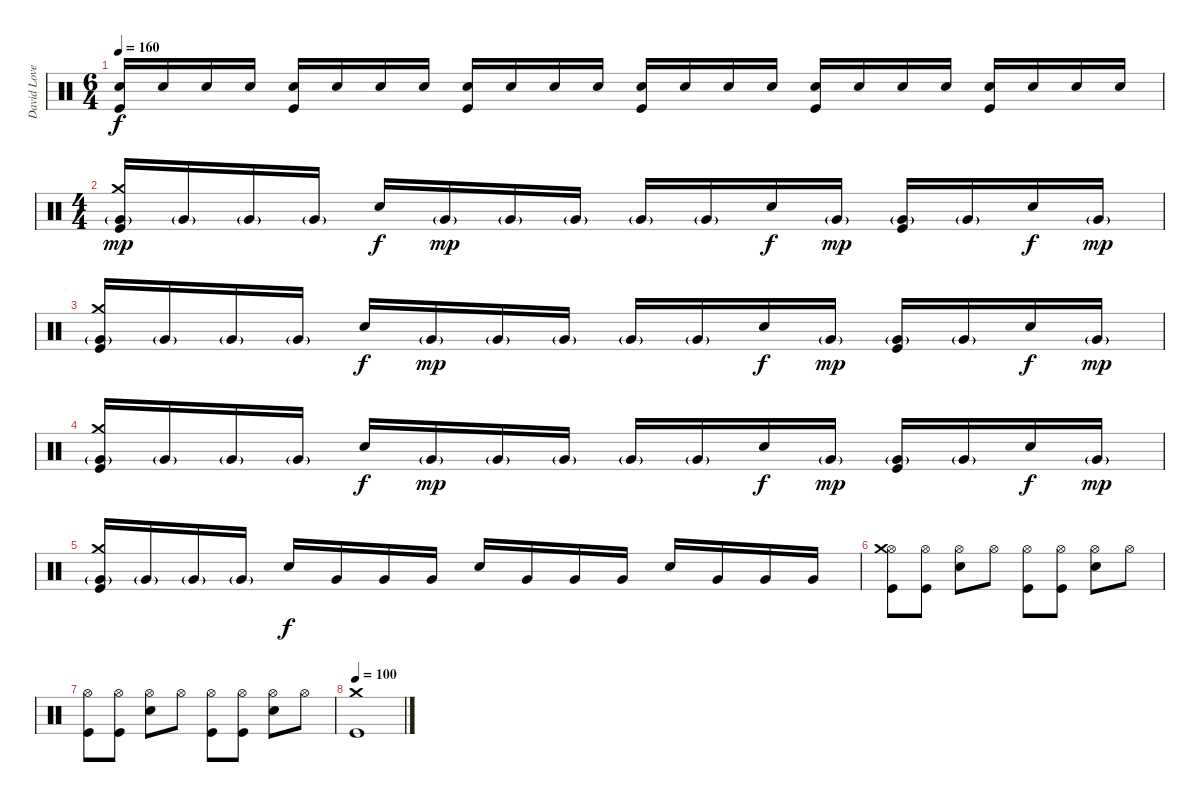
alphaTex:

\track ("David Lovering" "David Love") {instrument percussion}
\staff {score}
\articulation defaults
\ts (6 4)
\tempo 160
\clef neutral
\ks c
("Snare (hit) 2" "Kick (hit)").16{dy f} "Snare (hit) 2".16 "Snare (hit) 2".16 "Snare (hit) 2".16 ("Snare (hit) 2" "Kick (hit)").16 "Snare (hit) 2".16 "Snare (hit) 2".16 "Snare (hit) 2".16 ("Snare (hit) 2" "Kick (hit)").16 "Snare (hit) 2".16 "Snare (hit) 2".16 "Snare (hit) 2".16 ("Snare (hit) 2" "Kick (hit)").16 "Snare (hit) 2".16 "Snare (hit) 2".16 "Snare (hit) 2".16 ("Snare (hit) 2" "Kick (hit)").16 "Snare (hit) 2".16 "Snare (hit) 2".16 "Snare (hit) 2".16 ("Snare (hit) 2" "Kick (hit)").16 "Snare (hit) 2".16 "Snare (hit) 2".16 "Snare (hit) 2".16 |
\ts (4 4)
("Crash medium (hit)" "Very Low Tom (hit)"{g} "Kick (hit)").16{dy mp} "Very Low Tom (hit)"{g}.16 "Very Low Tom (hit)"{g}.16 "Very Low Tom (hit)"{g}.16 "Snare (hit) 2".16{dy f} "Very Low Tom (hit)"{g}.16{dy mp} "Very Low Tom (hit)"{g}.16 "Very Low Tom (hit)"{g}.16 "Very Low Tom (hit)"{g}.16 "Very Low Tom (hit)"{g}.16 "Snare (hit) 2".16{dy f} "Very Low Tom (hit)"{g}.16{dy mp} ("Very Low Tom (hit)"{g} "Kick (hit)").16 "Very Low Tom (hit)"{g}.16 "Snare (hit) 2".16{dy f} "Very Low Tom (hit)"{g}.16{dy mp} |
("Crash medium (hit)" "Very Low Tom (hit)"{g} "Kick (hit)").16 "Very Low Tom (hit)"{g}.16 "Very Low Tom (hit)"{g}.16 "Very Low Tom (hit)"{g}.16 "Snare (hit) 2".16{dy f} "Very Low Tom (hit)"{g}.16{dy mp} "Very Low Tom (hit)"{g}.16 "Very Low Tom (hit)"{g}.16 "Very Low Tom (hit)"{g}.16 "Very Low Tom (hit)"{g}.16 "Snare (hit) 2".16{dy f} "Very Low Tom (hit)"{g}.16{dy mp} ("Very Low Tom (hit)"{g} "Kick (hit)").16 "Very Low Tom (hit)"{g}.16 "Snare (hit) 2".16{dy f} "Very Low Tom (hit)"{g}.16{dy mp} |
("Crash medium (hit)" "Very Low Tom (hit)"{g} "Kick (hit)").16 "Very Low Tom (hit)"{g}.16 "Very Low Tom (hit)"{g}.16 "Very Low Tom (hit)"{g}.16 "Snare (hit) 2".16{dy f} "Very Low Tom (hit)"{g}.16{dy mp} "Very Low Tom (hit)"{g}.16 "Very Low Tom (hit)"{g}.16 "Very Low Tom (hit)"{g}.16 "Very Low Tom (hit)"{g}.16 "Snare (hit) 2".16{dy f} "Very Low Tom (hit)"{g}.16{dy mp} ("Very Low Tom (hit)"{g} "Kick (hit)").16 "Very Low Tom (hit)"{g}.16 "Snare (hit) 2".16{dy f} "Very Low Tom (hit)"{g}.16{dy mp} |
("Crash medium (hit)" "Very Low Tom (hit)"{g} "Kick (hit)").16 "Very Low Tom (hit)"{g}.16 "Very Low Tom (hit)"{g}.16 "Very Low Tom (hit)"{g}.16 "Snare (hit) 2".16{dy f} "Very Low Tom (hit)".16 "Very Low Tom (hit)".16 "Very Low Tom (hit)".16 "Snare (hit) 2".16 "Very Low Tom (hit)".16 "Very Low Tom (hit)".16 "Very Low Tom (hit)".16 "Snare (hit) 2".16 "Very Low Tom (hit)".16 "Very Low Tom (hit)".16 "Very Low Tom (hit)".16 |
("Hi-Hat (open)" "Crash medium (hit)" "Kick (hit)").8 ("Hi-Hat (open)" "Kick (hit)").8 ("Hi-Hat (open)" "Snare (hit) 2").8 "Hi-Hat (open)".8 ("Hi-Hat (open)" "Kick (hit)").8 ("Hi-Hat (open)" "Kick (hit)").8 ("Hi-Hat (open)" "Snare (hit) 2").8 "Hi-Hat (open)".8 |
("Hi-Hat (open)" "Kick (hit)").8 ("Hi-Hat (open)" "Kick (hit)").8 ("Hi-Hat (open)" "Snare (hit) 2").8 "Hi-Hat (open)".8 ("Hi-Hat (open)" "Kick (hit)").8 ("Hi-Hat (open)" "Kick (hit)").8 ("Hi-Hat (open)" "Snare (hit) 2").8 "Hi-Hat (open)".8 |
\tempo 100
("Crash medium (hit)" "Kick (hit)").1
